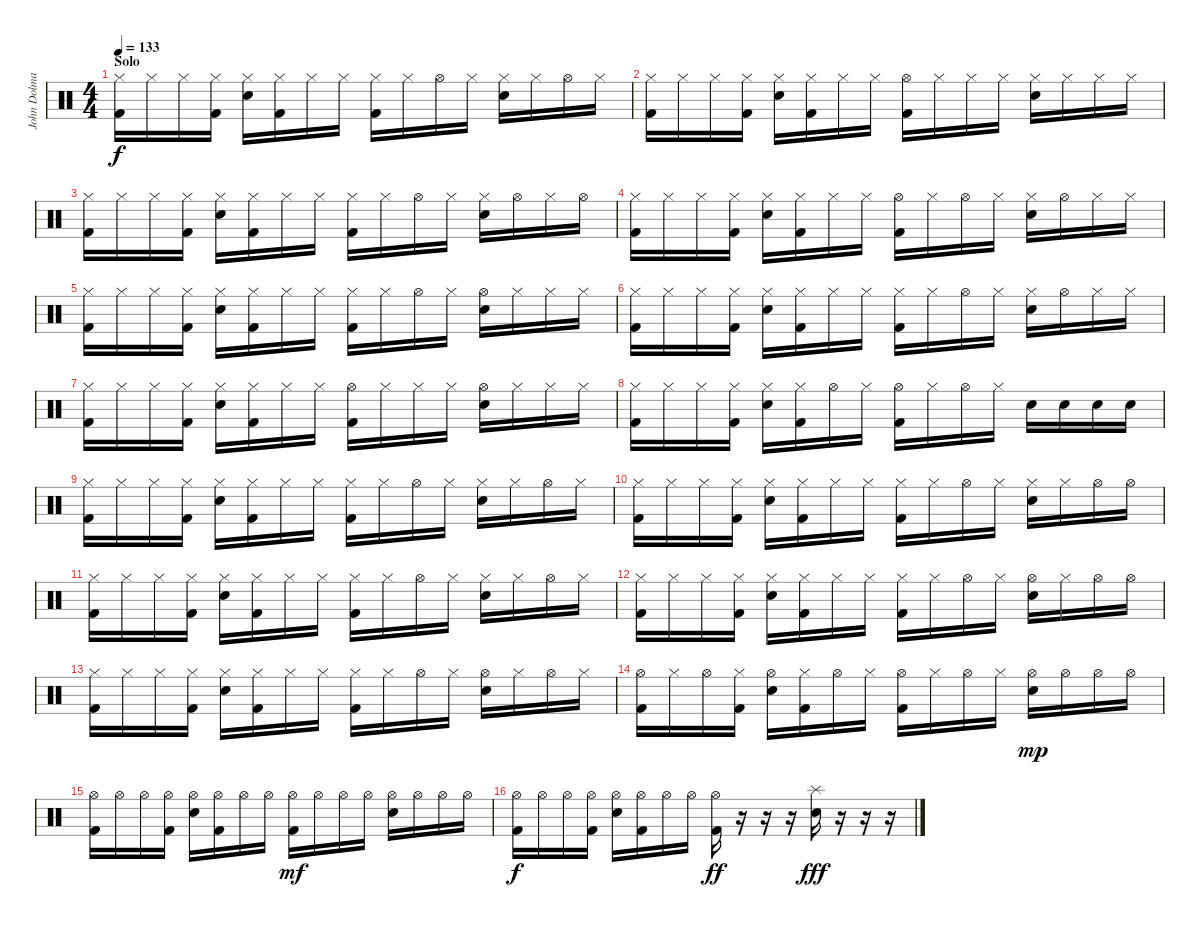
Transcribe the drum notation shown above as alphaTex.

\track ("John Dolmayan" "John Dolma") {instrument percussion}
\staff {score}
\articulation defaults
\ts (4 4)
\section ("" "Solo")
\tempo 133
\clef neutral
\ks c
("Hi-Hat (closed)" "Kick (hit) 2").16{dy f} "Hi-Hat (closed)".16 "Hi-Hat (closed)".16 ("Hi-Hat (closed)" "Kick (hit) 2").16 ("Hi-Hat (closed)" "Electric Snare (hit)").16 ("Hi-Hat (closed)" "Kick (hit) 2").16 "Hi-Hat (closed)".16 "Hi-Hat (closed)".16 ("Hi-Hat (closed)" "Kick (hit) 2").16 "Hi-Hat (closed)".16 "Hi-Hat (open)".16 "Hi-Hat (closed)".16 ("Hi-Hat (closed)" "Electric Snare (hit)").16 "Hi-Hat (closed)".16 "Hi-Hat (open)".16 "Hi-Hat (closed)".16 |
("Hi-Hat (closed)" "Kick (hit) 2").16 "Hi-Hat (closed)".16 "Hi-Hat (closed)".16 ("Hi-Hat (closed)" "Kick (hit) 2").16 ("Hi-Hat (closed)" "Electric Snare (hit)").16 ("Hi-Hat (closed)" "Kick (hit) 2").16 "Hi-Hat (closed)".16 "Hi-Hat (closed)".16 ("Hi-Hat (open)" "Kick (hit) 2").16 "Hi-Hat (closed)".16 "Hi-Hat (closed)".16 "Hi-Hat (closed)".16 ("Hi-Hat (closed)" "Electric Snare (hit)").16 "Hi-Hat (closed)".16 "Hi-Hat (closed)".16 "Hi-Hat (closed)".16 |
("Hi-Hat (closed)" "Kick (hit) 2").16 "Hi-Hat (closed)".16 "Hi-Hat (closed)".16 ("Hi-Hat (closed)" "Kick (hit) 2").16 ("Hi-Hat (closed)" "Electric Snare (hit)").16 ("Hi-Hat (closed)" "Kick (hit) 2").16 "Hi-Hat (closed)".16 "Hi-Hat (closed)".16 ("Hi-Hat (closed)" "Kick (hit) 2").16 "Hi-Hat (closed)".16 "Hi-Hat (open)".16 "Hi-Hat (closed)".16 ("Hi-Hat (closed)" "Electric Snare (hit)").16 "Hi-Hat (open)".16 "Hi-Hat (closed)".16 "Hi-Hat (open)".16 |
("Hi-Hat (closed)" "Kick (hit) 2").16 "Hi-Hat (closed)".16 "Hi-Hat (closed)".16 ("Hi-Hat (closed)" "Kick (hit) 2").16 ("Hi-Hat (closed)" "Electric Snare (hit)").16 ("Hi-Hat (closed)" "Kick (hit) 2").16 "Hi-Hat (closed)".16 "Hi-Hat (closed)".16 ("Hi-Hat (open)" "Kick (hit) 2").16 "Hi-Hat (closed)".16 "Hi-Hat (open)".16 "Hi-Hat (closed)".16 ("Hi-Hat (closed)" "Electric Snare (hit)").16 "Hi-Hat (open)".16 "Hi-Hat (closed)".16 "Hi-Hat (closed)".16 |
("Hi-Hat (closed)" "Kick (hit) 2").16 "Hi-Hat (closed)".16 "Hi-Hat (closed)".16 ("Hi-Hat (closed)" "Kick (hit) 2").16 ("Hi-Hat (closed)" "Electric Snare (hit)").16 ("Hi-Hat (closed)" "Kick (hit) 2").16 "Hi-Hat (closed)".16 "Hi-Hat (closed)".16 ("Hi-Hat (closed)" "Kick (hit) 2").16 "Hi-Hat (closed)".16 "Hi-Hat (open)".16 "Hi-Hat (closed)".16 ("Hi-Hat (open)" "Electric Snare (hit)").16 "Hi-Hat (closed)".16 "Hi-Hat (closed)".16 "Hi-Hat (closed)".16 |
("Hi-Hat (closed)" "Kick (hit) 2").16 "Hi-Hat (closed)".16 "Hi-Hat (closed)".16 ("Hi-Hat (closed)" "Kick (hit) 2").16 ("Hi-Hat (closed)" "Electric Snare (hit)").16 ("Hi-Hat (closed)" "Kick (hit) 2").16 "Hi-Hat (closed)".16 "Hi-Hat (closed)".16 ("Hi-Hat (closed)" "Kick (hit) 2").16 "Hi-Hat (closed)".16 "Hi-Hat (open)".16 "Hi-Hat (closed)".16 ("Hi-Hat (closed)" "Electric Snare (hit)").16 "Hi-Hat (open)".16 "Hi-Hat (closed)".16 "Hi-Hat (closed)".16 |
("Hi-Hat (closed)" "Kick (hit) 2").16 "Hi-Hat (closed)".16 "Hi-Hat (closed)".16 ("Hi-Hat (closed)" "Kick (hit) 2").16 ("Hi-Hat (closed)" "Electric Snare (hit)").16 ("Hi-Hat (closed)" "Kick (hit) 2").16 "Hi-Hat (closed)".16 "Hi-Hat (closed)".16 ("Hi-Hat (open)" "Kick (hit) 2").16 "Hi-Hat (closed)".16 "Hi-Hat (closed)".16 "Hi-Hat (closed)".16 ("Hi-Hat (open)" "Electric Snare (hit)").16 "Hi-Hat (closed)".16 "Hi-Hat (closed)".16 "Hi-Hat (closed)".16 |
("Hi-Hat (closed)" "Kick (hit) 2").16 "Hi-Hat (closed)".16 "Hi-Hat (closed)".16 ("Hi-Hat (closed)" "Kick (hit) 2").16 ("Hi-Hat (closed)" "Electric Snare (hit)").16 ("Hi-Hat (closed)" "Kick (hit) 2").16 "Hi-Hat (open)".16 "Hi-Hat (closed)".16 ("Hi-Hat (open)" "Kick (hit) 2").16 "Hi-Hat (closed)".16 "Hi-Hat (open)".16 "Hi-Hat (closed)".16 "Electric Snare (hit)".16 "Electric Snare (hit)".16 "Electric Snare (hit)".16 "Electric Snare (hit)".16 |
("Hi-Hat (closed)" "Kick (hit) 2").16 "Hi-Hat (closed)".16 "Hi-Hat (closed)".16 ("Hi-Hat (closed)" "Kick (hit) 2").16 ("Hi-Hat (closed)" "Electric Snare (hit)").16 ("Hi-Hat (closed)" "Kick (hit) 2").16 "Hi-Hat (closed)".16 "Hi-Hat (closed)".16 ("Hi-Hat (closed)" "Kick (hit) 2").16 "Hi-Hat (closed)".16 "Hi-Hat (open)".16 "Hi-Hat (closed)".16 ("Hi-Hat (closed)" "Electric Snare (hit)").16 "Hi-Hat (closed)".16 "Hi-Hat (open)".16 "Hi-Hat (closed)".16 |
("Hi-Hat (closed)" "Kick (hit) 2").16 "Hi-Hat (closed)".16 "Hi-Hat (closed)".16 ("Hi-Hat (closed)" "Kick (hit) 2").16 ("Hi-Hat (closed)" "Electric Snare (hit)").16 ("Hi-Hat (closed)" "Kick (hit) 2").16 "Hi-Hat (closed)".16 "Hi-Hat (closed)".16 ("Hi-Hat (closed)" "Kick (hit) 2").16 "Hi-Hat (closed)".16 "Hi-Hat (open)".16 "Hi-Hat (closed)".16 ("Hi-Hat (closed)" "Electric Snare (hit)").16 "Hi-Hat (closed)".16 "Hi-Hat (open)".16 "Hi-Hat (open)".16 |
("Hi-Hat (closed)" "Kick (hit) 2").16 "Hi-Hat (closed)".16 "Hi-Hat (closed)".16 ("Hi-Hat (closed)" "Kick (hit) 2").16 ("Hi-Hat (closed)" "Electric Snare (hit)").16 ("Hi-Hat (closed)" "Kick (hit) 2").16 "Hi-Hat (closed)".16 "Hi-Hat (closed)".16 ("Hi-Hat (closed)" "Kick (hit) 2").16 "Hi-Hat (closed)".16 "Hi-Hat (open)".16 "Hi-Hat (closed)".16 ("Hi-Hat (closed)" "Electric Snare (hit)").16 "Hi-Hat (closed)".16 "Hi-Hat (open)".16 "Hi-Hat (closed)".16 |
("Hi-Hat (closed)" "Kick (hit) 2").16 "Hi-Hat (closed)".16 "Hi-Hat (closed)".16 ("Hi-Hat (closed)" "Kick (hit) 2").16 ("Hi-Hat (closed)" "Electric Snare (hit)").16 ("Hi-Hat (closed)" "Kick (hit) 2").16 "Hi-Hat (closed)".16 "Hi-Hat (closed)".16 ("Hi-Hat (closed)" "Kick (hit) 2").16 "Hi-Hat (closed)".16 "Hi-Hat (open)".16 "Hi-Hat (closed)".16 ("Hi-Hat (open)" "Electric Snare (hit)").16 "Hi-Hat (closed)".16 "Hi-Hat (open)".16 "Hi-Hat (open)".16 |
("Hi-Hat (closed)" "Kick (hit) 2").16 "Hi-Hat (closed)".16 "Hi-Hat (closed)".16 ("Hi-Hat (closed)" "Kick (hit) 2").16 ("Hi-Hat (closed)" "Electric Snare (hit)").16 ("Hi-Hat (closed)" "Kick (hit) 2").16 "Hi-Hat (closed)".16 "Hi-Hat (closed)".16 ("Hi-Hat (closed)" "Kick (hit) 2").16 "Hi-Hat (closed)".16 "Hi-Hat (open)".16 "Hi-Hat (closed)".16 ("Hi-Hat (open)" "Electric Snare (hit)").16 "Hi-Hat (closed)".16 "Hi-Hat (open)".16 "Hi-Hat (closed)".16 |
("Hi-Hat (open)" "Kick (hit) 2").16 "Hi-Hat (closed)".16 "Hi-Hat (open)".16 ("Hi-Hat (closed)" "Kick (hit) 2").16 ("Hi-Hat (open)" "Electric Snare (hit)").16 ("Hi-Hat (closed)" "Kick (hit) 2").16 "Hi-Hat (open)".16 "Hi-Hat (closed)".16 ("Hi-Hat (open)" "Kick (hit) 2").16 "Hi-Hat (closed)".16 "Hi-Hat (open)".16 "Hi-Hat (closed)".16 ("Hi-Hat (open)" "Electric Snare (hit)").16{dy mp} "Hi-Hat (open)".16 "Hi-Hat (open)".16 "Hi-Hat (open)".16 |
("Hi-Hat (open)" "Kick (hit) 2").16 "Hi-Hat (open)".16 "Hi-Hat (open)".16 ("Hi-Hat (open)" "Kick (hit) 2").16 ("Hi-Hat (open)" "Electric Snare (hit)").16 ("Hi-Hat (open)" "Kick (hit) 2").16 "Hi-Hat (open)".16 "Hi-Hat (open)".16 ("Hi-Hat (open)" "Kick (hit) 2").16{dy mf} "Hi-Hat (open)".16 "Hi-Hat (open)".16 "Hi-Hat (open)".16 ("Hi-Hat (open)" "Electric Snare (hit)").16 "Hi-Hat (open)".16 "Hi-Hat (open)".16 "Hi-Hat (open)".16 |
("Hi-Hat (open)" "Kick (hit) 2").16{dy f} "Hi-Hat (open)".16 "Hi-Hat (open)".16 ("Hi-Hat (open)" "Kick (hit) 2").16 ("Hi-Hat (open)" "Electric Snare (hit)").16 ("Hi-Hat (open)" "Kick (hit) 2").16 "Hi-Hat (open)".16 "Hi-Hat (open)".16 ("Hi-Hat (open)" "Kick (hit) 2").16{dy ff} r.16 r.16 r.16 ("Splash (hit)" "Electric Snare (hit)").16{dy fff} r.16 r.16 r.16
